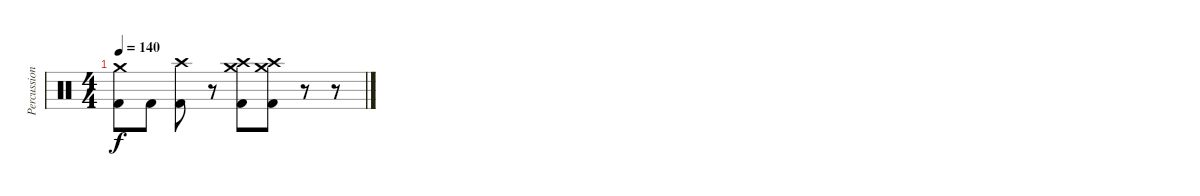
\track ("Percussion" "Percussion") {instrument percussion}
\staff {score}
\articulation defaults
\ts (4 4)
\tempo 140
\clef neutral
\ks c
("Crash medium (hit)" "Kick (hit) 2").8{dy f} "Kick (hit) 2".8 ("Crash high (hit)" "Kick (hit) 2").8 r.8 ("Crash medium (hit)" "Crash high (hit)" "Kick (hit) 2").8 ("Crash medium (hit)" "Crash high (hit)" "Kick (hit) 2").8 r.8 r.8
